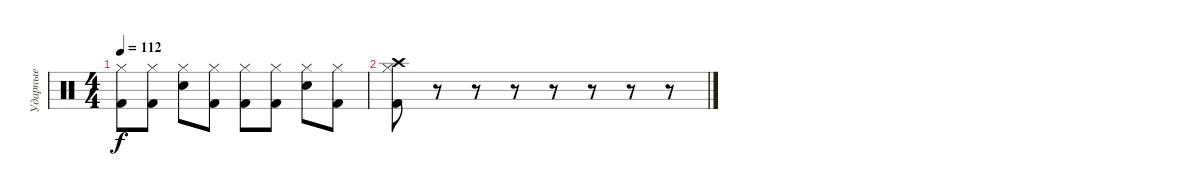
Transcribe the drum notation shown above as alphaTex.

\track ("Ударные" "Ударные") {instrument percussion}
\staff {score}
\articulation defaults
\ts (4 4)
\tempo 112
\clef neutral
\ks c
("Hi-Hat (closed)" "Kick (hit) 2").8{dy f} ("Hi-Hat (closed)" "Kick (hit) 2").8 ("Hi-Hat (closed)" "Snare (hit) 2").8 ("Hi-Hat (closed)" "Kick (hit) 2").8 ("Hi-Hat (closed)" "Kick (hit) 2").8 ("Hi-Hat (closed)" "Kick (hit) 2").8 ("Hi-Hat (closed)" "Snare (hit) 2").8 ("Hi-Hat (closed)" "Kick (hit) 2").8 |
("Hi-Hat (closed)" "Kick (hit) 2" "Crash high (hit)").8 r.8 r.8 r.8 r.8 r.8 r.8 r.8
